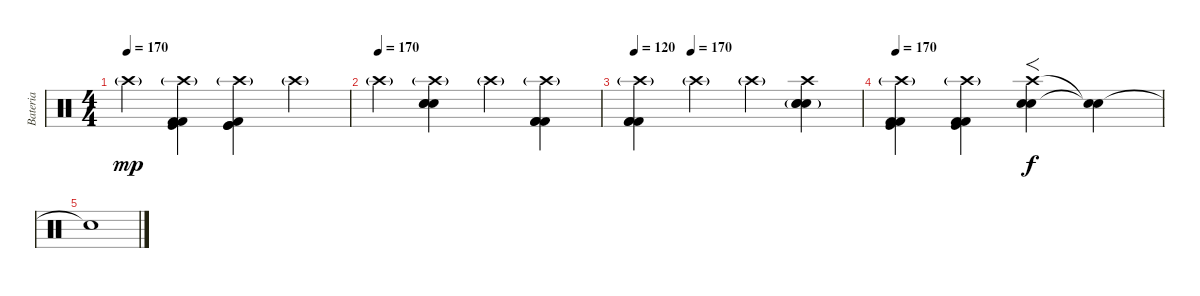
\track ("Bateria" "Bateria") {instrument percussion}
\staff {score}
\articulation defaults
\ts (4 4)
\tempo 170
\clef neutral
\ks c "Crash high (hit)"{g}.4{dy mp}
("Crash high (hit)"{g} "Kick (hit) 2" "Kick (hit) 2" "Kick (hit)").4 ("Crash high (hit)"{g} "Kick (hit)" "Kick (hit)" "Kick (hit) 2").4 "Crash high (hit)"{g}.4 |
\tempo (170)
"Crash high (hit)"{g}.4 ("Crash high (hit)"{g} "Electric Snare (hit)" "Electric Snare (hit)" "Snare (hit) 2").4 "Crash high (hit)"{g}.4 ("Crash high (hit)"{g} "Kick (hit) 2" "Kick (hit) 2" "Kick (hit) 2").4 |
\tempo 120
\tempo (170 0.25)
("Crash high (hit)"{g} "Kick (hit) 2" "Kick (hit) 2" "Kick (hit) 2").4 "Crash high (hit)"{g}.4 "Crash high (hit)"{g}.4 ("Electric Snare (hit)"{g} "Electric Snare (hit)" "Snare (hit) 2" "Crash high (hit)").4 |
\tempo 170
("Crash high (hit)"{g} "Kick (hit) 2" "Kick (hit) 2" "Kick (hit)").4 ("Crash high (hit)"{g} "Kick (hit) 2" "Kick (hit) 2" "Kick (hit)").4 ("Crash high (hit)" "Electric Snare (hit)" "Snare (hit) 2").4{f dy f} ("Snare (hit)"{t} "Snare (hit)"{t}).4 |
"Snare (hit)"{t}.1
